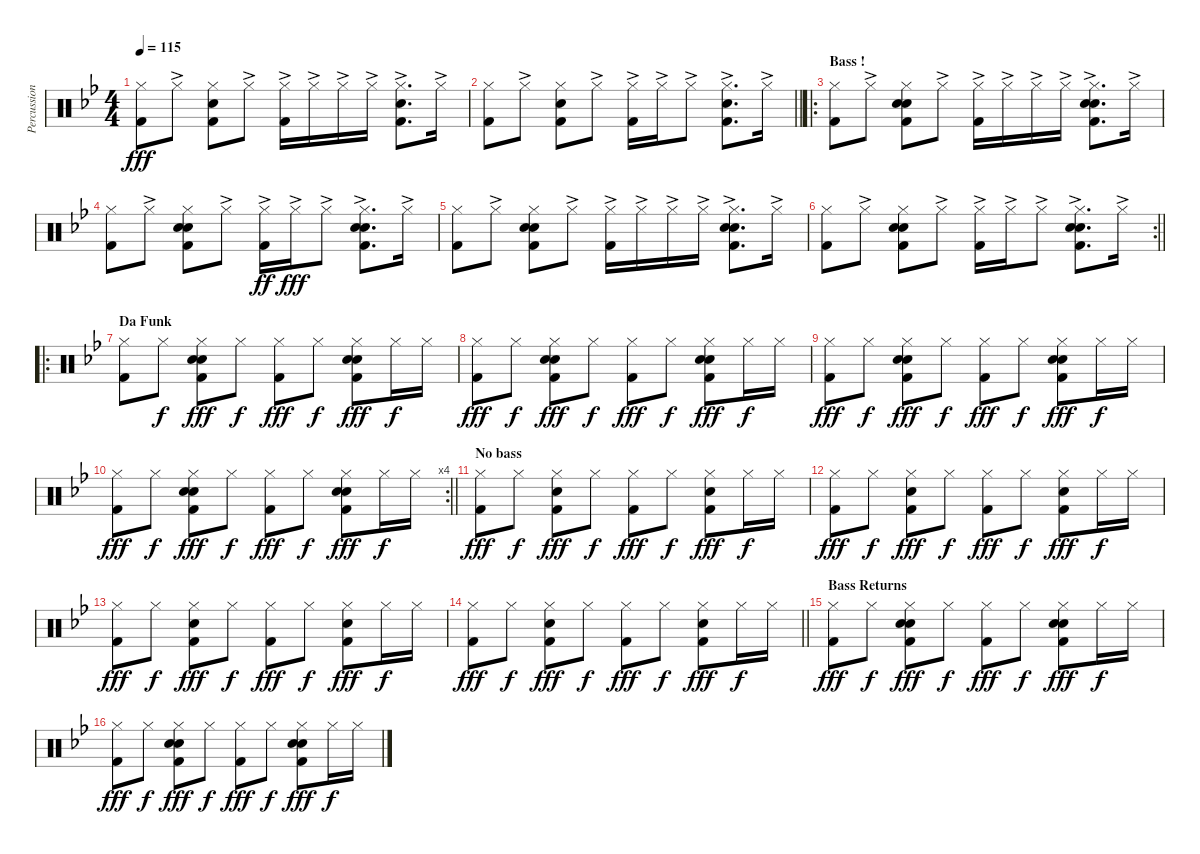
\track ("Percussions" "Percussion") {instrument percussion}
\staff {score}
\articulation defaults
\ts (4 4)
\tempo 115
\clef neutral
\ks gminor
("Hi-Hat (closed)" "Kick (hit) 2").8{dy fff} "Hi-Hat (closed)"{ac}.8 ("Hi-Hat (closed)" "Hand Clap (hit)" "Kick (hit) 2").8 "Hi-Hat (closed)"{ac}.8 ("Hi-Hat (closed)"{ac} "Kick (hit) 2").16 "Hi-Hat (closed)"{ac}.16 "Hi-Hat (closed)"{ac}.16 "Hi-Hat (closed)"{ac}.16 ("Hi-Hat (closed)"{ac} "Hand Clap (hit)" "Kick (hit) 2").8{d} "Hi-Hat (closed)"{ac}.16 |
\barLineRight lightlight
("Hi-Hat (closed)" "Kick (hit) 2").8 "Hi-Hat (closed)"{ac}.8 ("Hi-Hat (closed)" "Hand Clap (hit)" "Kick (hit) 2").8 "Hi-Hat (closed)"{ac}.8 ("Hi-Hat (closed)"{ac} "Kick (hit) 2").16 "Hi-Hat (closed)"{ac}.16 "Hi-Hat (closed)"{ac}.8 ("Hi-Hat (closed)"{ac} "Hand Clap (hit)" "Kick (hit) 2").8{d} "Hi-Hat (closed)"{ac}.16 |
\ro
\section ("" "Bass !")
("Hi-Hat (closed)" "Kick (hit) 2").8 "Hi-Hat (closed)"{ac}.8 ("Hi-Hat (closed)" "Hand Clap (hit)" "Electric Snare (hit)" "Kick (hit) 2").8 "Hi-Hat (closed)"{ac}.8 ("Hi-Hat (closed)"{ac} "Kick (hit) 2").16 "Hi-Hat (closed)"{ac}.16 "Hi-Hat (closed)"{ac}.16 "Hi-Hat (closed)"{ac}.16 ("Hi-Hat (closed)"{ac} "Hand Clap (hit)" "Electric Snare (hit)" "Kick (hit) 2").8{d} "Hi-Hat (closed)"{ac}.16 |
("Hi-Hat (closed)" "Kick (hit) 2").8 "Hi-Hat (closed)"{ac}.8 ("Hi-Hat (closed)" "Hand Clap (hit)" "Electric Snare (hit)" "Kick (hit) 2").8 "Hi-Hat (closed)"{ac}.8 ("Hi-Hat (closed)"{ac} "Kick (hit) 2").16{dy ff} "Hi-Hat (closed)"{ac}.16{dy fff} "Hi-Hat (closed)"{ac}.8 ("Hi-Hat (closed)"{ac} "Hand Clap (hit)" "Electric Snare (hit)" "Kick (hit) 2").8{d} "Hi-Hat (closed)"{ac}.16 |
("Hi-Hat (closed)" "Kick (hit) 2").8 "Hi-Hat (closed)"{ac}.8 ("Hi-Hat (closed)" "Hand Clap (hit)" "Electric Snare (hit)" "Kick (hit) 2").8 "Hi-Hat (closed)"{ac}.8 ("Hi-Hat (closed)"{ac} "Kick (hit) 2").16 "Hi-Hat (closed)"{ac}.16 "Hi-Hat (closed)"{ac}.16 "Hi-Hat (closed)"{ac}.16 ("Hi-Hat (closed)"{ac} "Hand Clap (hit)" "Electric Snare (hit)" "Kick (hit) 2").8{d} "Hi-Hat (closed)"{ac}.16 |
\rc 2
\barLineRight lightlight
("Hi-Hat (closed)" "Kick (hit) 2").8 "Hi-Hat (closed)"{ac}.8 ("Hi-Hat (closed)" "Hand Clap (hit)" "Electric Snare (hit)" "Kick (hit) 2").8 "Hi-Hat (closed)"{ac}.8 ("Hi-Hat (closed)"{ac} "Kick (hit) 2").16 "Hi-Hat (closed)"{ac}.16 "Hi-Hat (closed)"{ac}.8 ("Hi-Hat (closed)"{ac} "Hand Clap (hit)" "Electric Snare (hit)" "Kick (hit) 2").8{d} "Hi-Hat (closed)"{ac}.16 |
\ro
\section ("" "Da Funk")
("Hi-Hat (closed)" "Kick (hit) 2").8 "Hi-Hat (closed)".8{dy f} ("Hi-Hat (closed)" "Hand Clap (hit)" "Electric Snare (hit)" "Kick (hit) 2").8{dy fff} "Hi-Hat (closed)".8{dy f} ("Hi-Hat (closed)" "Kick (hit) 2").8{dy fff} "Hi-Hat (closed)".8{dy f} ("Hi-Hat (closed)" "Hand Clap (hit)" "Electric Snare (hit)" "Kick (hit) 2").8{dy fff} "Hi-Hat (closed)".16{dy f} "Hi-Hat (closed)".16 |
("Hi-Hat (closed)" "Kick (hit) 2").8{dy fff} "Hi-Hat (closed)".8{dy f} ("Hi-Hat (closed)" "Hand Clap (hit)" "Electric Snare (hit)" "Kick (hit) 2").8{dy fff} "Hi-Hat (closed)".8{dy f} ("Hi-Hat (closed)" "Kick (hit) 2").8{dy fff} "Hi-Hat (closed)".8{dy f} ("Hi-Hat (closed)" "Hand Clap (hit)" "Electric Snare (hit)" "Kick (hit) 2").8{dy fff} "Hi-Hat (closed)".16{dy f} "Hi-Hat (closed)".16 |
("Hi-Hat (closed)" "Kick (hit) 2").8{dy fff} "Hi-Hat (closed)".8{dy f} ("Hi-Hat (closed)" "Hand Clap (hit)" "Electric Snare (hit)" "Kick (hit) 2").8{dy fff} "Hi-Hat (closed)".8{dy f} ("Hi-Hat (closed)" "Kick (hit) 2").8{dy fff} "Hi-Hat (closed)".8{dy f} ("Hi-Hat (closed)" "Hand Clap (hit)" "Electric Snare (hit)" "Kick (hit) 2").8{dy fff} "Hi-Hat (closed)".16{dy f} "Hi-Hat (closed)".16 |
\rc 4
\barLineRight lightlight
("Hi-Hat (closed)" "Kick (hit) 2").8{dy fff} "Hi-Hat (closed)".8{dy f} ("Hi-Hat (closed)" "Hand Clap (hit)" "Electric Snare (hit)" "Kick (hit) 2").8{dy fff} "Hi-Hat (closed)".8{dy f} ("Hi-Hat (closed)" "Kick (hit) 2").8{dy fff} "Hi-Hat (closed)".8{dy f} ("Hi-Hat (closed)" "Hand Clap (hit)" "Electric Snare (hit)" "Kick (hit) 2").8{dy fff} "Hi-Hat (closed)".16{dy f} "Hi-Hat (closed)".16 |
\section ("" "No bass")
("Hi-Hat (closed)" "Kick (hit) 2").8{dy fff} "Hi-Hat (closed)".8{dy f} ("Hi-Hat (closed)" "Hand Clap (hit)" "Kick (hit) 2").8{dy fff} "Hi-Hat (closed)".8{dy f} ("Hi-Hat (closed)" "Kick (hit) 2").8{dy fff} "Hi-Hat (closed)".8{dy f} ("Hi-Hat (closed)" "Hand Clap (hit)" "Kick (hit) 2").8{dy fff} "Hi-Hat (closed)".16{dy f} "Hi-Hat (closed)".16 |
("Hi-Hat (closed)" "Kick (hit) 2").8{dy fff} "Hi-Hat (closed)".8{dy f} ("Hi-Hat (closed)" "Hand Clap (hit)" "Kick (hit) 2").8{dy fff} "Hi-Hat (closed)".8{dy f} ("Hi-Hat (closed)" "Kick (hit) 2").8{dy fff} "Hi-Hat (closed)".8{dy f} ("Hi-Hat (closed)" "Hand Clap (hit)" "Kick (hit) 2").8{dy fff} "Hi-Hat (closed)".16{dy f} "Hi-Hat (closed)".16 |
("Hi-Hat (closed)" "Kick (hit) 2").8{dy fff} "Hi-Hat (closed)".8{dy f} ("Hi-Hat (closed)" "Hand Clap (hit)" "Kick (hit) 2").8{dy fff} "Hi-Hat (closed)".8{dy f} ("Hi-Hat (closed)" "Kick (hit) 2").8{dy fff} "Hi-Hat (closed)".8{dy f} ("Hi-Hat (closed)" "Hand Clap (hit)" "Kick (hit) 2").8{dy fff} "Hi-Hat (closed)".16{dy f} "Hi-Hat (closed)".16 |
\barLineRight lightlight
("Hi-Hat (closed)" "Kick (hit) 2").8{dy fff} "Hi-Hat (closed)".8{dy f} ("Hi-Hat (closed)" "Hand Clap (hit)" "Kick (hit) 2").8{dy fff} "Hi-Hat (closed)".8{dy f} ("Hi-Hat (closed)" "Kick (hit) 2").8{dy fff} "Hi-Hat (closed)".8{dy f} ("Hi-Hat (closed)" "Hand Clap (hit)" "Kick (hit) 2").8{dy fff} "Hi-Hat (closed)".16{dy f} "Hi-Hat (closed)".16 |
\section ("" "Bass Returns")
("Hi-Hat (closed)" "Kick (hit) 2").8{dy fff} "Hi-Hat (closed)".8{dy f} ("Hi-Hat (closed)" "Hand Clap (hit)" "Electric Snare (hit)" "Kick (hit) 2").8{dy fff} "Hi-Hat (closed)".8{dy f} ("Hi-Hat (closed)" "Kick (hit) 2").8{dy fff} "Hi-Hat (closed)".8{dy f} ("Hi-Hat (closed)" "Hand Clap (hit)" "Electric Snare (hit)" "Kick (hit) 2").8{dy fff} "Hi-Hat (closed)".16{dy f} "Hi-Hat (closed)".16 |
("Hi-Hat (closed)" "Kick (hit) 2").8{dy fff} "Hi-Hat (closed)".8{dy f} ("Hi-Hat (closed)" "Hand Clap (hit)" "Electric Snare (hit)" "Kick (hit) 2").8{dy fff} "Hi-Hat (closed)".8{dy f} ("Hi-Hat (closed)" "Kick (hit) 2").8{dy fff} "Hi-Hat (closed)".8{dy f} ("Hi-Hat (closed)" "Hand Clap (hit)" "Electric Snare (hit)" "Kick (hit) 2").8{dy fff} "Hi-Hat (closed)".16{dy f} "Hi-Hat (closed)".16
